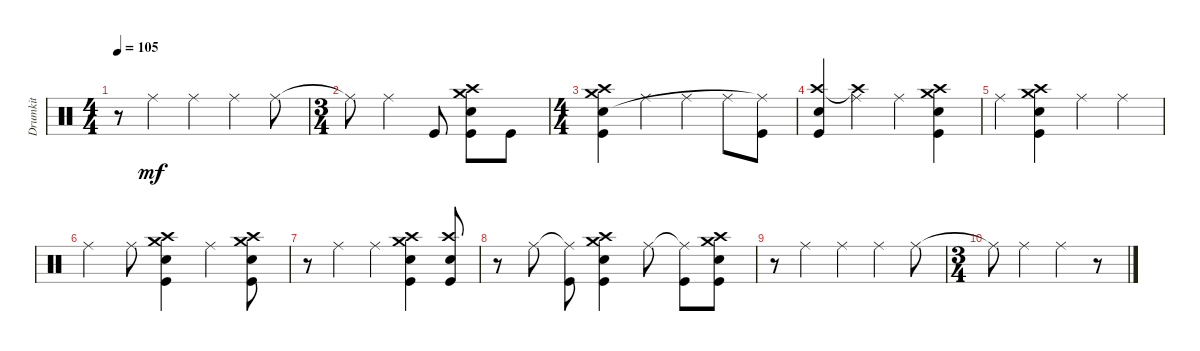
\track ("Drumkit" "Drumkit") {instrument percussion}
\staff {score}
\articulation defaults
\ts (4 4)
\tempo 105
\clef neutral
\ks c
r.8{dy mf} "Ride (middle)".4 "Ride (middle)".4 "Ride (middle)".4 "Ride (middle)".8 |
\ts (3 4)
"Ride (middle)"{t}.8 "Ride (middle)".4 "Kick (hit)".8 ("Kick (hit)" "Crash high (hit)" "Snare (hit) 2" "Crash medium (hit)").8 "Kick (hit)".8 |
\ts (4 4)
("Kick (hit)" "Snare (hit) 2" "Crash high (hit)" "Crash medium (hit)").4 "Ride (middle)".4 "Ride (middle)".4 "Ride (middle)".8 ("Kick (hit)" "Ride (middle)"{t}).8 |
("Snare (hit) 2" "Crash high (hit)" "Kick (hit)").4 ("Ride (middle)" "Crash high (hit)"{t}).4 "Ride (middle)".4 ("Snare (hit) 2" "Crash high (hit)" "Crash medium (hit)" "Kick (hit)").4 |
"Ride (middle)".4 ("Kick (hit)" "Snare (hit) 2" "Crash high (hit)" "Crash medium (hit)").4 "Ride (middle)".4 "Ride (middle)".4 |
"Ride (middle)".4 "Ride (middle)".8 ("Kick (hit)" "Snare (hit) 2" "Crash high (hit)" "Crash medium (hit)").4 "Ride (middle)".4 ("Kick (hit)" "Snare (hit) 2" "Crash high (hit)" "Crash medium (hit)").8 |
r.8 "Ride (middle)".4 "Ride (middle)".4 ("Crash high (hit)" "Crash medium (hit)" "Snare (hit) 2" "Kick (hit)").4 ("Kick (hit)" "Snare (hit) 2" "Crash high (hit)").8 |
r.8 "Ride (middle)".8 ("Ride (middle)"{t} "Kick (hit)").8 ("Kick (hit)" "Snare (hit) 2" "Crash high (hit)" "Crash medium (hit)").4 "Ride (middle)".8 ("Ride (middle)"{t} "Kick (hit)").8 ("Kick (hit)" "Snare (hit) 2" "Crash high (hit)" "Crash medium (hit)").8 |
r.8 "Ride (middle)".4 "Ride (middle)".4 "Ride (middle)".4 "Ride (middle)".8 |
\ts (3 4)
"Ride (middle)"{t}.8 "Ride (middle)".4 "Ride (middle)".4 r.8
